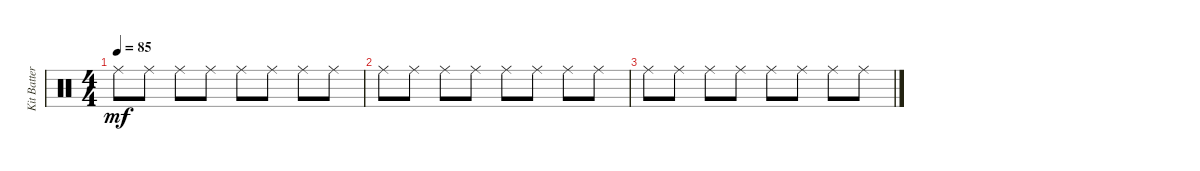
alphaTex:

\track ("Kit Batterie 2" "Kit Batter") {instrument percussion}
\staff {score}
\articulation defaults
\ts (4 4)
\tempo 85
\clef neutral
\ks c "Ride (middle)".8{dy mf balance 0} "Ride (middle)".8 "Ride (middle)".8 "Ride (middle)".8 "Ride (middle)".8 "Ride (middle)".8 "Ride (middle)".8 "Ride (middle)".8
|
"Ride (middle)".8{balance 0} "Ride (middle)".8 "Ride (middle)".8 "Ride (middle)".8 "Ride (middle)".8 "Ride (middle)".8 "Ride (middle)".8 "Ride (middle)".8 |
"Ride (middle)".8{balance 0} "Ride (middle)".8 "Ride (middle)".8 "Ride (middle)".8 "Ride (middle)".8 "Ride (middle)".8 "Ride (middle)".8 "Ride (middle)".8
